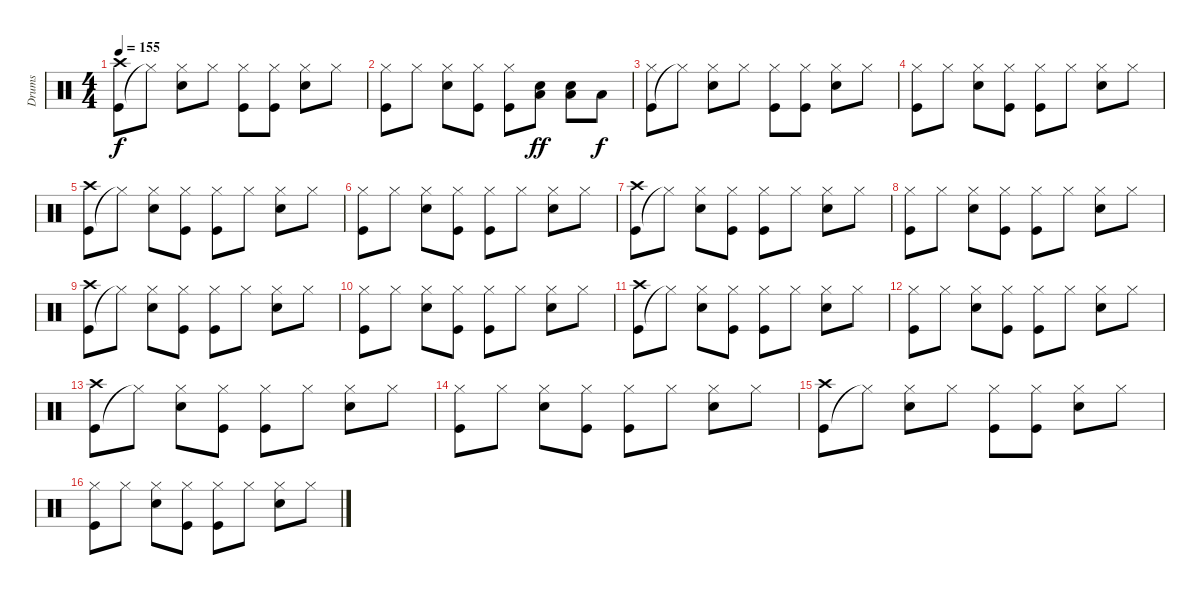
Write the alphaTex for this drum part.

\track ("Drums" "Drums") {instrument percussion}
\staff {score}
\articulation defaults
\ts (4 4)
\tempo 155
\clef neutral
\ks c
("Kick (hit)" "Crash high (hit)").8{dy f} "Hi-Hat (closed)"{t}.8 ("Snare (hit) 2" "Hi-Hat (closed)").8 "Hi-Hat (closed)".8 ("Kick (hit)" "Hi-Hat (closed)").8 ("Kick (hit)" "Hi-Hat (closed)").8 ("Snare (hit) 2" "Hi-Hat (closed)").8 "Hi-Hat (closed)".8 |
("Kick (hit)" "Hi-Hat (closed)").8 "Hi-Hat (closed)".8 ("Snare (hit) 2" "Hi-Hat (closed)").8 ("Kick (hit)" "Hi-Hat (closed)").8 ("Kick (hit)" "Hi-Hat (closed)").8 ("Snare (hit) 2" "Low Floor Tom (hit)").8{dy ff} ("Snare (hit) 2" "Low Floor Tom (hit)").8 "Low Floor Tom (hit)".8{dy f} |
("Kick (hit)" "Hi-Hat (closed)").8 "Hi-Hat (closed)"{t}.8 ("Snare (hit) 2" "Hi-Hat (closed)").8 "Hi-Hat (closed)".8 ("Kick (hit)" "Hi-Hat (closed)").8 ("Kick (hit)" "Hi-Hat (closed)").8 ("Snare (hit) 2" "Hi-Hat (closed)").8 "Hi-Hat (closed)".8 |
("Kick (hit)" "Hi-Hat (closed)").8 "Hi-Hat (closed)".8 ("Snare (hit) 2" "Hi-Hat (closed)").8 ("Kick (hit)" "Hi-Hat (closed)").8 ("Kick (hit)" "Hi-Hat (closed)").8 "Hi-Hat (closed)".8 ("Snare (hit) 2" "Hi-Hat (closed)").8 "Hi-Hat (closed)".8 |
("Kick (hit)" "Crash high (hit)").8 "Hi-Hat (closed)"{t}.8 ("Snare (hit) 2" "Hi-Hat (closed)").8 ("Kick (hit)" "Hi-Hat (closed)").8 ("Kick (hit)" "Hi-Hat (closed)").8 "Hi-Hat (closed)".8 ("Snare (hit) 2" "Hi-Hat (closed)").8 "Hi-Hat (closed)".8 |
("Kick (hit)" "Hi-Hat (closed)").8 "Hi-Hat (closed)".8 ("Snare (hit) 2" "Hi-Hat (closed)").8 ("Kick (hit)" "Hi-Hat (closed)").8 ("Kick (hit)" "Hi-Hat (closed)").8 "Hi-Hat (closed)".8 ("Snare (hit) 2" "Hi-Hat (closed)").8 "Hi-Hat (closed)".8 |
("Kick (hit)" "Crash high (hit)").8 "Hi-Hat (closed)"{t}.8 ("Snare (hit) 2" "Hi-Hat (closed)").8 ("Kick (hit)" "Hi-Hat (closed)").8 ("Kick (hit)" "Hi-Hat (closed)").8 "Hi-Hat (closed)".8 ("Snare (hit) 2" "Hi-Hat (closed)").8 "Hi-Hat (closed)".8 |
("Kick (hit)" "Hi-Hat (closed)").8 "Hi-Hat (closed)".8 ("Snare (hit) 2" "Hi-Hat (closed)").8 ("Kick (hit)" "Hi-Hat (closed)").8 ("Kick (hit)" "Hi-Hat (closed)").8 "Hi-Hat (closed)".8 ("Snare (hit) 2" "Hi-Hat (closed)").8 "Hi-Hat (closed)".8 |
("Kick (hit)" "Crash high (hit)").8 "Hi-Hat (closed)"{t}.8 ("Snare (hit) 2" "Hi-Hat (closed)").8 ("Kick (hit)" "Hi-Hat (closed)").8 ("Kick (hit)" "Hi-Hat (closed)").8 "Hi-Hat (closed)".8 ("Snare (hit) 2" "Hi-Hat (closed)").8 "Hi-Hat (closed)".8 |
("Kick (hit)" "Hi-Hat (closed)").8 "Hi-Hat (closed)".8 ("Snare (hit) 2" "Hi-Hat (closed)").8 ("Kick (hit)" "Hi-Hat (closed)").8 ("Kick (hit)" "Hi-Hat (closed)").8 "Hi-Hat (closed)".8 ("Snare (hit) 2" "Hi-Hat (closed)").8 "Hi-Hat (closed)".8 |
("Kick (hit)" "Crash high (hit)").8 "Hi-Hat (closed)"{t}.8 ("Snare (hit) 2" "Hi-Hat (closed)").8 ("Kick (hit)" "Hi-Hat (closed)").8 ("Kick (hit)" "Hi-Hat (closed)").8 "Hi-Hat (closed)".8 ("Snare (hit) 2" "Hi-Hat (closed)").8 "Hi-Hat (closed)".8 |
("Kick (hit)" "Hi-Hat (closed)").8 "Hi-Hat (closed)".8 ("Snare (hit) 2" "Hi-Hat (closed)").8 ("Kick (hit)" "Hi-Hat (closed)").8 ("Kick (hit)" "Hi-Hat (closed)").8 "Hi-Hat (closed)".8 ("Snare (hit) 2" "Hi-Hat (closed)").8 "Hi-Hat (closed)".8 |
("Kick (hit)" "Crash high (hit)").8 "Hi-Hat (closed)"{t}.8 ("Snare (hit) 2" "Hi-Hat (closed)").8 ("Kick (hit)" "Hi-Hat (closed)").8 ("Kick (hit)" "Hi-Hat (closed)").8 "Hi-Hat (closed)".8 ("Snare (hit) 2" "Hi-Hat (closed)").8 "Hi-Hat (closed)".8 |
("Kick (hit)" "Hi-Hat (closed)").8 "Hi-Hat (closed)".8 ("Snare (hit) 2" "Hi-Hat (closed)").8 ("Kick (hit)" "Hi-Hat (closed)").8 ("Kick (hit)" "Hi-Hat (closed)").8 "Hi-Hat (closed)".8 ("Snare (hit) 2" "Hi-Hat (closed)").8 "Hi-Hat (closed)".8 |
("Kick (hit)" "Crash high (hit)").8 "Hi-Hat (closed)"{t}.8 ("Snare (hit) 2" "Hi-Hat (closed)").8 "Hi-Hat (closed)".8 ("Kick (hit)" "Hi-Hat (closed)").8 ("Kick (hit)" "Hi-Hat (closed)").8 ("Snare (hit) 2" "Hi-Hat (closed)").8 "Hi-Hat (closed)".8 |
("Kick (hit)" "Hi-Hat (closed)").8 "Hi-Hat (closed)".8 ("Snare (hit) 2" "Hi-Hat (closed)").8 ("Kick (hit)" "Hi-Hat (closed)").8 ("Kick (hit)" "Hi-Hat (closed)").8 "Hi-Hat (closed)".8 ("Snare (hit) 2" "Hi-Hat (closed)").8 "Hi-Hat (closed)".8
